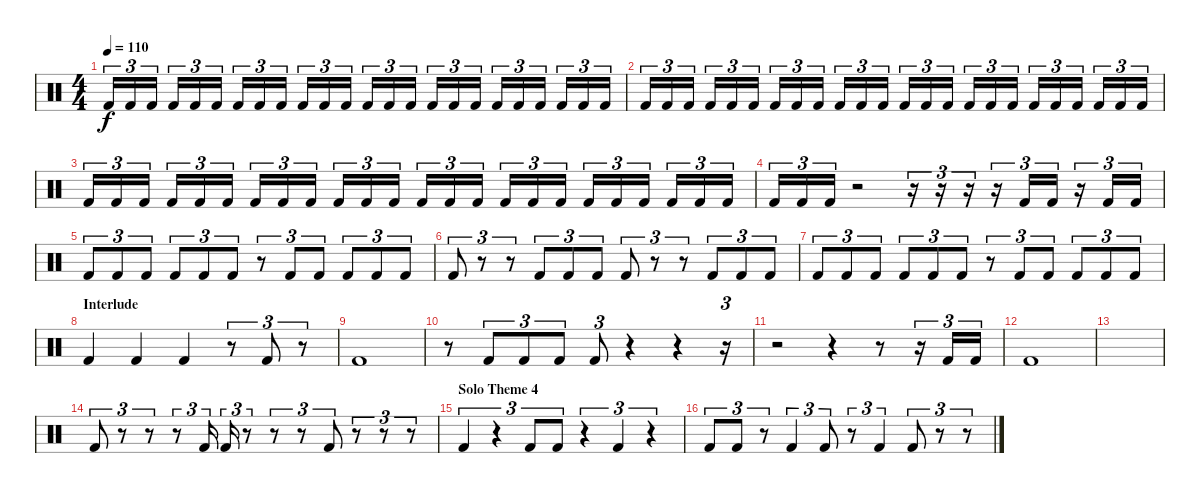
\track "" {instrument percussion}
\staff {score}
\articulation defaults
\ts (4 4)
\tempo 110
\clef neutral
\ks c "Kick (hit) 2".16{tu (3 2) dy f} "Kick (hit) 2".16{tu (3 2)} "Kick (hit) 2".16{tu (3 2)} "Kick (hit) 2".16{tu (3 2)} "Kick (hit) 2".16{tu (3 2)} "Kick (hit) 2".16{tu (3 2)} "Kick (hit) 2".16{tu (3 2)} "Kick (hit) 2".16{tu (3 2)} "Kick (hit) 2".16{tu (3 2)} "Kick (hit) 2".16{tu (3 2)} "Kick (hit) 2".16{tu (3 2)} "Kick (hit) 2".16{tu (3 2)} "Kick (hit) 2".16{tu (3 2)} "Kick (hit) 2".16{tu (3 2)} "Kick (hit) 2".16{tu (3 2)} "Kick (hit) 2".16{tu (3 2)} "Kick (hit) 2".16{tu (3 2)} "Kick (hit) 2".16{tu (3 2)} "Kick (hit) 2".16{tu (3 2)} "Kick (hit) 2".16{tu (3 2)} "Kick (hit) 2".16{tu (3 2)} "Kick (hit) 2".16{tu (3 2)} "Kick (hit) 2".16{tu (3 2)} "Kick (hit) 2".16{tu (3 2)}
|
"Kick (hit) 2".16{tu (3 2)} "Kick (hit) 2".16{tu (3 2)} "Kick (hit) 2".16{tu (3 2)} "Kick (hit) 2".16{tu (3 2)} "Kick (hit) 2".16{tu (3 2)} "Kick (hit) 2".16{tu (3 2)} "Kick (hit) 2".16{tu (3 2)} "Kick (hit) 2".16{tu (3 2)} "Kick (hit) 2".16{tu (3 2)} "Kick (hit) 2".16{tu (3 2)} "Kick (hit) 2".16{tu (3 2)} "Kick (hit) 2".16{tu (3 2)} "Kick (hit) 2".16{tu (3 2)} "Kick (hit) 2".16{tu (3 2)} "Kick (hit) 2".16{tu (3 2)} "Kick (hit) 2".16{tu (3 2)} "Kick (hit) 2".16{tu (3 2)} "Kick (hit) 2".16{tu (3 2)} "Kick (hit) 2".16{tu (3 2)} "Kick (hit) 2".16{tu (3 2)} "Kick (hit) 2".16{tu (3 2)} "Kick (hit) 2".16{tu (3 2)} "Kick (hit) 2".16{tu (3 2)} "Kick (hit) 2".16{tu (3 2)} |
"Kick (hit) 2".16{tu (3 2)} "Kick (hit) 2".16{tu (3 2)} "Kick (hit) 2".16{tu (3 2)} "Kick (hit) 2".16{tu (3 2)} "Kick (hit) 2".16{tu (3 2)} "Kick (hit) 2".16{tu (3 2)} "Kick (hit) 2".16{tu (3 2)} "Kick (hit) 2".16{tu (3 2)} "Kick (hit) 2".16{tu (3 2)} "Kick (hit) 2".16{tu (3 2)} "Kick (hit) 2".16{tu (3 2)} "Kick (hit) 2".16{tu (3 2)} "Kick (hit) 2".16{tu (3 2)} "Kick (hit) 2".16{tu (3 2)} "Kick (hit) 2".16{tu (3 2)} "Kick (hit) 2".16{tu (3 2)} "Kick (hit) 2".16{tu (3 2)} "Kick (hit) 2".16{tu (3 2)} "Kick (hit) 2".16{tu (3 2)} "Kick (hit) 2".16{tu (3 2)} "Kick (hit) 2".16{tu (3 2)} "Kick (hit) 2".16{tu (3 2)} "Kick (hit) 2".16{tu (3 2)} "Kick (hit) 2".16{tu (3 2)} |
"Kick (hit) 2".16{tu (3 2)} "Kick (hit) 2".16{tu (3 2)} "Kick (hit) 2".16{tu (3 2)} r.2 r.16{tu (3 2)} r.16{tu (3 2)} r.16{tu (3 2)} r.16{tu (3 2)} "Kick (hit) 2".16{tu (3 2)} "Kick (hit) 2".16{tu (3 2)} r.16{tu (3 2)} "Kick (hit) 2".16{tu (3 2)} "Kick (hit) 2".16{tu (3 2)} |
"Kick (hit) 2".8{tu (3 2)} "Kick (hit) 2".8{tu (3 2)} "Kick (hit) 2".8{tu (3 2)} "Kick (hit) 2".8{tu (3 2)} "Kick (hit) 2".8{tu (3 2)} "Kick (hit) 2".8{tu (3 2)} r.8{tu (3 2)} "Kick (hit) 2".8{tu (3 2)} "Kick (hit) 2".8{tu (3 2)} "Kick (hit) 2".8{tu (3 2)} "Kick (hit) 2".8{tu (3 2)} "Kick (hit) 2".8{tu (3 2)} |
"Kick (hit) 2".8{tu (3 2)} r.8{tu (3 2)} r.8{tu (3 2)} "Kick (hit) 2".8{tu (3 2)} "Kick (hit) 2".8{tu (3 2)} "Kick (hit) 2".8{tu (3 2)} "Kick (hit) 2".8{tu (3 2)} r.8{tu (3 2)} r.8{tu (3 2)} "Kick (hit) 2".8{tu (3 2)} "Kick (hit) 2".8{tu (3 2)} "Kick (hit) 2".8{tu (3 2)} |
"Kick (hit) 2".8{tu (3 2)} "Kick (hit) 2".8{tu (3 2)} "Kick (hit) 2".8{tu (3 2)} "Kick (hit) 2".8{tu (3 2)} "Kick (hit) 2".8{tu (3 2)} "Kick (hit) 2".8{tu (3 2)} r.8{tu (3 2)} "Kick (hit) 2".8{tu (3 2)} "Kick (hit) 2".8{tu (3 2)} "Kick (hit) 2".8{tu (3 2)} "Kick (hit) 2".8{tu (3 2)} "Kick (hit) 2".8{tu (3 2)} |
\section ("" "Interlude")
"Kick (hit) 2".4 "Kick (hit) 2".4 "Kick (hit) 2".4 r.8{tu (3 2)} "Kick (hit) 2".8{tu (3 2)} r.8{tu (3 2)} |
"Kick (hit) 2".1 |
r.8 "Kick (hit) 2".8{tu (3 2)} "Kick (hit) 2".8{tu (3 2)} "Kick (hit) 2".8{tu (3 2)} "Kick (hit) 2".8{tu (3 2)} r.4 r.4 r.16{tu (3 2)} |
r.2 r.4 r.8 r.16{tu (3 2)} "Kick (hit) 2".16{tu (3 2)} "Kick (hit) 2".16{tu (3 2)} |
"Kick (hit) 2".1 |
|
"Kick (hit) 2".8{tu (3 2)} r.8{tu (3 2)} r.8{tu (3 2)} r.8{tu (3 2)} "Kick (hit) 2".16{tu (3 2)} "Kick (hit) 2".16{tu (3 2)} r.8{tu (3 2)} r.8{tu (3 2)} r.8{tu (3 2)} "Kick (hit) 2".8{tu (3 2)} r.8{tu (3 2)} r.8{tu (3 2)} r.8{tu (3 2)} |
\section ("" "Solo Theme 4")
"Kick (hit) 2".4{tu (3 2)} r.4{tu (3 2)} "Kick (hit) 2".8{tu (3 2)} "Kick (hit) 2".8{tu (3 2)} r.4{tu (3 2)} "Kick (hit) 2".4{tu (3 2)} r.4{tu (3 2)} |
"Kick (hit) 2".8{tu (3 2)} "Kick (hit) 2".8{tu (3 2)} r.8{tu (3 2)} "Kick (hit) 2".4{tu (3 2)} "Kick (hit) 2".8{tu (3 2)} r.8{tu (3 2)} "Kick (hit) 2".4{tu (3 2)} "Kick (hit) 2".8{tu (3 2)} r.8{tu (3 2)} r.8{tu (3 2)}
